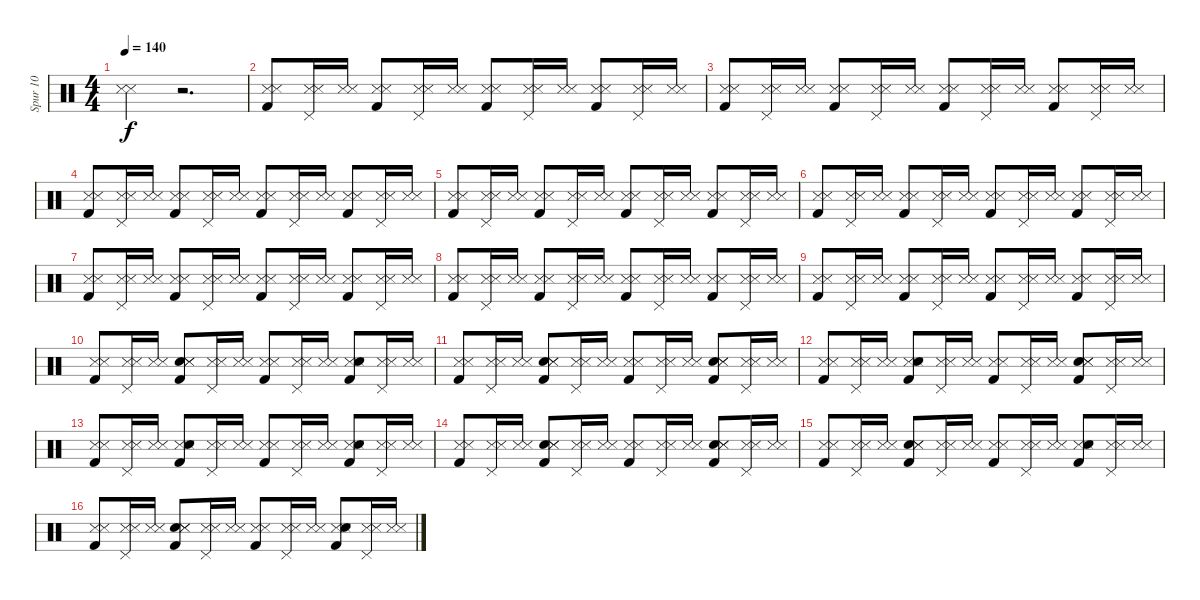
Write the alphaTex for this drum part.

\track ("Spur 10" "Spur 10") {instrument percussion}
\staff {score}
\articulation defaults
\ts (4 4)
\tempo 140
\clef neutral
\ks c
("Snare (side stick) 3" "Metronome (hit)").4{dy f} r.2{d} |
("Kick (hit) 2" "Snare (side stick) 3" "Metronome (hit)").8 ("Snare (side stick) 3" "Pedal Hi-Hat (hit)" "Metronome (hit)").16 ("Snare (side stick) 3" "Metronome (hit)").16 ("Snare (side stick) 3" "Kick (hit) 2" "Metronome (hit)").8 ("Pedal Hi-Hat (hit)" "Snare (side stick) 3" "Metronome (hit)").16 ("Snare (side stick) 3" "Metronome (hit)").16 ("Kick (hit) 2" "Snare (side stick) 3" "Metronome (hit)").8 ("Pedal Hi-Hat (hit)" "Snare (side stick) 3" "Metronome (hit)").16 ("Snare (side stick) 3" "Metronome (hit)").16 ("Snare (side stick) 3" "Kick (hit) 2" "Metronome (hit)").8 ("Pedal Hi-Hat (hit)" "Snare (side stick) 3" "Metronome (hit)").16 ("Snare (side stick) 3" "Metronome (hit)").16 |
("Snare (side stick) 3" "Kick (hit) 2" "Metronome (hit)").8 ("Snare (side stick) 3" "Pedal Hi-Hat (hit)" "Metronome (hit)").16 ("Snare (side stick) 3" "Metronome (hit)").16 ("Kick (hit) 2" "Snare (side stick) 3" "Metronome (hit)").8 ("Snare (side stick) 3" "Pedal Hi-Hat (hit)" "Metronome (hit)").16 ("Snare (side stick) 3" "Metronome (hit)").16 ("Kick (hit) 2" "Snare (side stick) 3" "Metronome (hit)").8 ("Snare (side stick) 3" "Pedal Hi-Hat (hit)" "Metronome (hit)").16 ("Snare (side stick) 3" "Metronome (hit)").16 ("Kick (hit) 2" "Snare (side stick) 3" "Metronome (hit)").8 ("Pedal Hi-Hat (hit)" "Snare (side stick) 3" "Metronome (hit)").16 ("Snare (side stick) 3" "Metronome (hit)").16 |
("Snare (side stick) 3" "Kick (hit) 2" "Metronome (hit)").8 ("Pedal Hi-Hat (hit)" "Snare (side stick) 3" "Metronome (hit)").16 ("Snare (side stick) 3" "Metronome (hit)").16 ("Kick (hit) 2" "Snare (side stick) 3" "Metronome (hit)").8 ("Snare (side stick) 3" "Pedal Hi-Hat (hit)" "Metronome (hit)").16 ("Snare (side stick) 3" "Metronome (hit)").16 ("Kick (hit) 2" "Snare (side stick) 3" "Metronome (hit)").8 ("Snare (side stick) 3" "Pedal Hi-Hat (hit)" "Metronome (hit)").16 ("Snare (side stick) 3" "Metronome (hit)").16 ("Kick (hit) 2" "Snare (side stick) 3" "Metronome (hit)").8 ("Pedal Hi-Hat (hit)" "Snare (side stick) 3" "Metronome (hit)").16 ("Snare (side stick) 3" "Metronome (hit)").16 |
("Snare (side stick) 3" "Kick (hit) 2" "Metronome (hit)").8 ("Pedal Hi-Hat (hit)" "Snare (side stick) 3" "Metronome (hit)").16 ("Snare (side stick) 3" "Metronome (hit)").16 ("Kick (hit) 2" "Snare (side stick) 3" "Metronome (hit)").8 ("Pedal Hi-Hat (hit)" "Snare (side stick) 3" "Metronome (hit)").16 ("Snare (side stick) 3" "Metronome (hit)").16 ("Snare (side stick) 3" "Kick (hit) 2" "Metronome (hit)").8 ("Pedal Hi-Hat (hit)" "Snare (side stick) 3" "Metronome (hit)").16 ("Snare (side stick) 3" "Metronome (hit)").16 ("Snare (side stick) 3" "Kick (hit) 2" "Metronome (hit)").8 ("Snare (side stick) 3" "Pedal Hi-Hat (hit)" "Metronome (hit)").16 ("Snare (side stick) 3" "Metronome (hit)").16 |
("Snare (side stick) 3" "Kick (hit) 2" "Metronome (hit)").8 ("Pedal Hi-Hat (hit)" "Snare (side stick) 3" "Metronome (hit)").16 ("Snare (side stick) 3" "Metronome (hit)").16 ("Kick (hit) 2" "Snare (side stick) 3" "Metronome (hit)").8 ("Pedal Hi-Hat (hit)" "Snare (side stick) 3" "Metronome (hit)").16 ("Snare (side stick) 3" "Metronome (hit)").16 ("Snare (side stick) 3" "Kick (hit) 2" "Metronome (hit)").8 ("Pedal Hi-Hat (hit)" "Snare (side stick) 3" "Metronome (hit)").16 ("Snare (side stick) 3" "Metronome (hit)").16 ("Kick (hit) 2" "Snare (side stick) 3" "Metronome (hit)").8 ("Pedal Hi-Hat (hit)" "Snare (side stick) 3" "Metronome (hit)").16 ("Snare (side stick) 3" "Metronome (hit)").16 |
("Snare (side stick) 3" "Kick (hit) 2" "Metronome (hit)").8 ("Pedal Hi-Hat (hit)" "Snare (side stick) 3" "Metronome (hit)").16 ("Snare (side stick) 3" "Metronome (hit)").16 ("Kick (hit) 2" "Snare (side stick) 3" "Metronome (hit)").8 ("Pedal Hi-Hat (hit)" "Snare (side stick) 3" "Metronome (hit)").16 ("Snare (side stick) 3" "Metronome (hit)").16 ("Kick (hit) 2" "Snare (side stick) 3" "Metronome (hit)").8 ("Pedal Hi-Hat (hit)" "Snare (side stick) 3" "Metronome (hit)").16 ("Snare (side stick) 3" "Metronome (hit)").16 ("Kick (hit) 2" "Snare (side stick) 3" "Metronome (hit)").8 ("Snare (side stick) 3" "Pedal Hi-Hat (hit)" "Metronome (hit)").16 ("Snare (side stick) 3" "Metronome (hit)").16 |
("Snare (side stick) 3" "Kick (hit) 2" "Metronome (hit)").8 ("Snare (side stick) 3" "Pedal Hi-Hat (hit)" "Metronome (hit)").16 ("Snare (side stick) 3" "Metronome (hit)").16 ("Kick (hit) 2" "Snare (side stick) 3" "Metronome (hit)").8 ("Pedal Hi-Hat (hit)" "Snare (side stick) 3" "Metronome (hit)").16 ("Snare (side stick) 3" "Metronome (hit)").16 ("Kick (hit) 2" "Snare (side stick) 3" "Metronome (hit)").8 ("Pedal Hi-Hat (hit)" "Snare (side stick) 3" "Metronome (hit)").16 ("Snare (side stick) 3" "Metronome (hit)").16 ("Kick (hit) 2" "Snare (side stick) 3" "Metronome (hit)").8 ("Pedal Hi-Hat (hit)" "Snare (side stick) 3" "Metronome (hit)").16 ("Snare (side stick) 3" "Metronome (hit)").16 |
("Kick (hit) 2" "Snare (side stick) 3" "Metronome (hit)").8 ("Pedal Hi-Hat (hit)" "Snare (side stick) 3" "Metronome (hit)").16 ("Snare (side stick) 3" "Metronome (hit)").16 ("Kick (hit) 2" "Snare (side stick) 3" "Metronome (hit)").8 ("Snare (side stick) 3" "Pedal Hi-Hat (hit)" "Metronome (hit)").16 ("Snare (side stick) 3" "Metronome (hit)").16 ("Kick (hit) 2" "Snare (side stick) 3" "Metronome (hit)").8 ("Pedal Hi-Hat (hit)" "Snare (side stick) 3" "Metronome (hit)").16 ("Snare (side stick) 3" "Metronome (hit)").16 ("Snare (side stick) 3" "Kick (hit) 2" "Metronome (hit)").8 ("Pedal Hi-Hat (hit)" "Snare (side stick) 3" "Metronome (hit)").16 ("Snare (side stick) 3" "Metronome (hit)").16 |
("Kick (hit) 2" "Snare (side stick) 3" "Metronome (hit)").8 ("Pedal Hi-Hat (hit)" "Snare (side stick) 3" "Metronome (hit)").16 ("Snare (side stick) 3" "Metronome (hit)").16 ("Snare (hit) 2" "Kick (hit) 2" "Snare (side stick) 3" "Metronome (hit)").8 ("Pedal Hi-Hat (hit)" "Snare (side stick) 3" "Metronome (hit)").16 ("Snare (side stick) 3" "Metronome (hit)").16 ("Snare (side stick) 3" "Kick (hit) 2" "Metronome (hit)").8 ("Snare (side stick) 3" "Pedal Hi-Hat (hit)" "Metronome (hit)").16 ("Snare (side stick) 3" "Metronome (hit)").16 ("Kick (hit) 2" "Snare (side stick) 3" "Snare (hit) 2" "Metronome (hit)").8 ("Pedal Hi-Hat (hit)" "Snare (side stick) 3" "Metronome (hit)").16 ("Snare (side stick) 3" "Metronome (hit)").16 |
("Snare (side stick) 3" "Kick (hit) 2" "Metronome (hit)").8 ("Snare (side stick) 3" "Pedal Hi-Hat (hit)" "Metronome (hit)").16 ("Snare (side stick) 3" "Metronome (hit)").16 ("Snare (hit) 2" "Kick (hit) 2" "Snare (side stick) 3" "Metronome (hit)").8 ("Pedal Hi-Hat (hit)" "Snare (side stick) 3" "Metronome (hit)").16 ("Snare (side stick) 3" "Metronome (hit)").16 ("Kick (hit) 2" "Snare (side stick) 3" "Metronome (hit)").8 ("Snare (side stick) 3" "Pedal Hi-Hat (hit)" "Metronome (hit)").16 ("Snare (side stick) 3" "Metronome (hit)").16 ("Kick (hit) 2" "Snare (hit) 2" "Snare (side stick) 3" "Metronome (hit)").8 ("Pedal Hi-Hat (hit)" "Snare (side stick) 3" "Metronome (hit)").16 ("Snare (side stick) 3" "Metronome (hit)").16 |
("Kick (hit) 2" "Snare (side stick) 3" "Metronome (hit)").8 ("Snare (side stick) 3" "Pedal Hi-Hat (hit)" "Metronome (hit)").16 ("Snare (side stick) 3" "Metronome (hit)").16 ("Snare (side stick) 3" "Snare (hit) 2" "Kick (hit) 2" "Metronome (hit)").8 ("Pedal Hi-Hat (hit)" "Snare (side stick) 3" "Metronome (hit)").16 ("Snare (side stick) 3" "Metronome (hit)").16 ("Kick (hit) 2" "Snare (side stick) 3" "Metronome (hit)").8 ("Pedal Hi-Hat (hit)" "Snare (side stick) 3" "Metronome (hit)").16 ("Snare (side stick) 3" "Metronome (hit)").16 ("Kick (hit) 2" "Snare (hit) 2" "Snare (side stick) 3" "Metronome (hit)").8 ("Pedal Hi-Hat (hit)" "Snare (side stick) 3" "Metronome (hit)").16 ("Snare (side stick) 3" "Metronome (hit)").16 |
("Snare (side stick) 3" "Kick (hit) 2" "Metronome (hit)").8 ("Snare (side stick) 3" "Pedal Hi-Hat (hit)" "Metronome (hit)").16 ("Snare (side stick) 3" "Metronome (hit)").16 ("Kick (hit) 2" "Snare (side stick) 3" "Snare (hit) 2" "Metronome (hit)").8 ("Pedal Hi-Hat (hit)" "Snare (side stick) 3" "Metronome (hit)").16 ("Snare (side stick) 3" "Metronome (hit)").16 ("Snare (side stick) 3" "Kick (hit) 2" "Metronome (hit)").8 ("Pedal Hi-Hat (hit)" "Snare (side stick) 3" "Metronome (hit)").16 ("Snare (side stick) 3" "Metronome (hit)").16 ("Kick (hit) 2" "Snare (side stick) 3" "Snare (hit) 2" "Metronome (hit)").8 ("Snare (side stick) 3" "Pedal Hi-Hat (hit)" "Metronome (hit)").16 ("Snare (side stick) 3" "Metronome (hit)").16 |
("Snare (side stick) 3" "Kick (hit) 2" "Metronome (hit)").8 ("Snare (side stick) 3" "Pedal Hi-Hat (hit)" "Metronome (hit)").16 ("Snare (side stick) 3" "Metronome (hit)").16 ("Snare (hit) 2" "Kick (hit) 2" "Snare (side stick) 3" "Metronome (hit)").8 ("Snare (side stick) 3" "Pedal Hi-Hat (hit)" "Metronome (hit)").16 ("Snare (side stick) 3" "Metronome (hit)").16 ("Snare (side stick) 3" "Kick (hit) 2" "Metronome (hit)").8 ("Snare (side stick) 3" "Pedal Hi-Hat (hit)" "Metronome (hit)").16 ("Snare (side stick) 3" "Metronome (hit)").16 ("Kick (hit) 2" "Snare (hit) 2" "Snare (side stick) 3" "Metronome (hit)").8 ("Pedal Hi-Hat (hit)" "Snare (side stick) 3" "Metronome (hit)").16 ("Snare (side stick) 3" "Metronome (hit)").16 |
("Kick (hit) 2" "Snare (side stick) 3" "Metronome (hit)").8 ("Pedal Hi-Hat (hit)" "Snare (side stick) 3" "Metronome (hit)").16 ("Snare (side stick) 3" "Metronome (hit)").16 ("Kick (hit) 2" "Snare (hit) 2" "Snare (side stick) 3" "Metronome (hit)").8 ("Pedal Hi-Hat (hit)" "Snare (side stick) 3" "Metronome (hit)").16 ("Snare (side stick) 3" "Metronome (hit)").16 ("Kick (hit) 2" "Snare (side stick) 3" "Metronome (hit)").8 ("Snare (side stick) 3" "Pedal Hi-Hat (hit)" "Metronome (hit)").16 ("Snare (side stick) 3" "Metronome (hit)").16 ("Snare (side stick) 3" "Snare (hit) 2" "Kick (hit) 2" "Metronome (hit)").8 ("Pedal Hi-Hat (hit)" "Snare (side stick) 3" "Metronome (hit)").16 ("Snare (side stick) 3" "Metronome (hit)").16 |
("Snare (side stick) 3" "Kick (hit) 2" "Metronome (hit)").8 ("Snare (side stick) 3" "Pedal Hi-Hat (hit)" "Metronome (hit)").16 ("Snare (side stick) 3" "Metronome (hit)").16 ("Snare (hit) 2" "Snare (side stick) 3" "Kick (hit) 2" "Metronome (hit)").8 ("Snare (side stick) 3" "Pedal Hi-Hat (hit)" "Metronome (hit)").16 ("Snare (side stick) 3" "Metronome (hit)").16 ("Kick (hit) 2" "Snare (side stick) 3" "Metronome (hit)").8 ("Pedal Hi-Hat (hit)" "Snare (side stick) 3" "Metronome (hit)").16 ("Snare (side stick) 3" "Metronome (hit)").16 ("Kick (hit) 2" "Snare (side stick) 3" "Snare (hit) 2" "Metronome (hit)").8 ("Pedal Hi-Hat (hit)" "Snare (side stick) 3" "Metronome (hit)").16 ("Snare (side stick) 3" "Metronome (hit)").16
